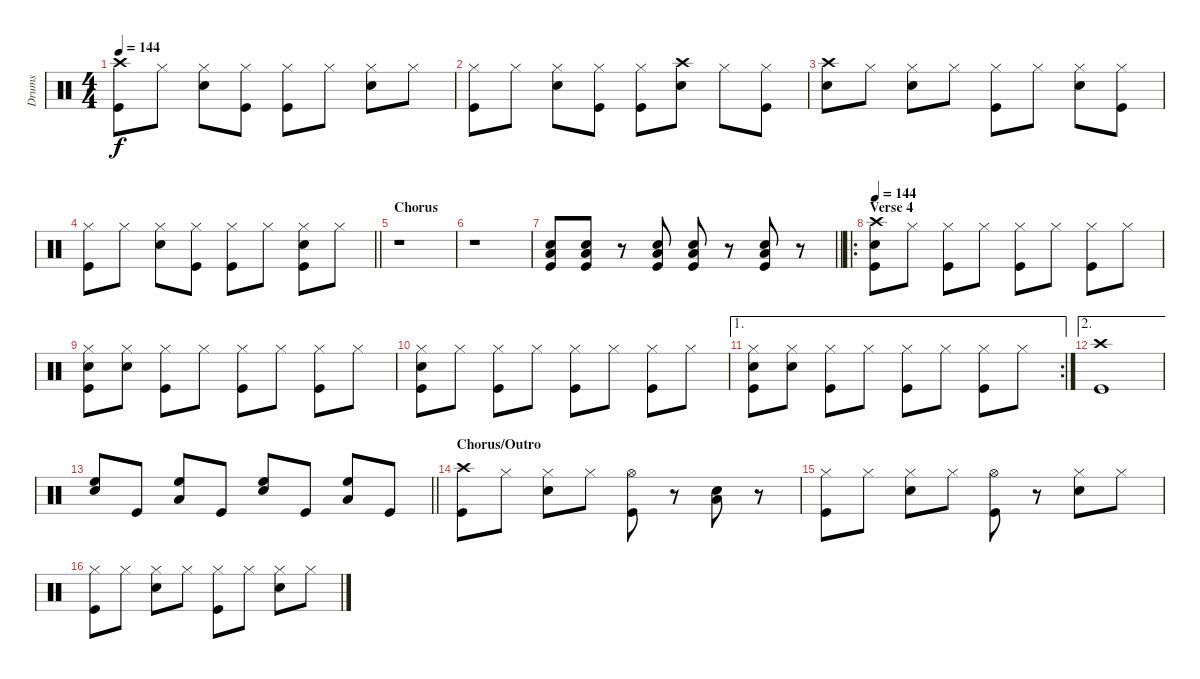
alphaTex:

\track ("Drums" "Drums") {instrument percussion}
\staff {score}
\articulation defaults
\ts (4 4)
\tempo 144
\clef neutral
\ks c
("Crash high (hit)" "Kick (hit)").8{dy f} "Hi-Hat (closed)".8 ("Hi-Hat (closed)" "Snare (hit) 2").8 ("Hi-Hat (closed)" "Kick (hit)").8 ("Hi-Hat (closed)" "Kick (hit)").8 "Hi-Hat (closed)".8 ("Hi-Hat (closed)" "Snare (hit) 2").8 "Hi-Hat (closed)".8 |
("Hi-Hat (closed)" "Kick (hit)").8 "Hi-Hat (closed)".8 ("Hi-Hat (closed)" "Snare (hit) 2").8 ("Hi-Hat (closed)" "Kick (hit)").8 ("Hi-Hat (closed)" "Kick (hit)").8 ("Crash high (hit)" "Snare (hit) 2").8 "Hi-Hat (closed)".8 ("Hi-Hat (closed)" "Kick (hit)").8 |
("Crash high (hit)" "Snare (hit) 2").8 "Hi-Hat (closed)".8 ("Hi-Hat (closed)" "Snare (hit) 2").8 "Hi-Hat (closed)".8 ("Hi-Hat (closed)" "Kick (hit)").8 "Hi-Hat (closed)".8 ("Hi-Hat (closed)" "Snare (hit) 2").8 ("Hi-Hat (closed)" "Kick (hit)").8 |
\barLineRight lightlight
("Hi-Hat (closed)" "Kick (hit)").8 "Hi-Hat (closed)".8 ("Hi-Hat (closed)" "Snare (hit) 2").8 ("Hi-Hat (closed)" "Kick (hit)").8 ("Hi-Hat (closed)" "Kick (hit)").8 "Hi-Hat (closed)".8 ("Hi-Hat (closed)" "Snare (hit) 2" "Kick (hit)").8 "Hi-Hat (closed)".8 |
\section ("" "Chorus")
r.1 |
r.1 |
\barLineRight lightlight
("Snare (hit) 2" "Low Floor Tom (hit)" "Kick (hit)").8 ("Snare (hit) 2" "Low Floor Tom (hit)" "Kick (hit)").8 r.8 ("Snare (hit) 2" "Low Floor Tom (hit)" "Kick (hit)").8 ("Snare (hit) 2" "Low Floor Tom (hit)" "Kick (hit)").8 r.8 ("Snare (hit) 2" "Low Floor Tom (hit)" "Kick (hit)").8 r.8 |
\ro
\section ("" "Verse 4")
\tempo 144
("Crash high (hit)" "Snare (hit) 2" "Kick (hit)").8 "Hi-Hat (closed)".8 ("Hi-Hat (closed)" "Kick (hit)").8 "Hi-Hat (closed)".8 ("Hi-Hat (closed)" "Kick (hit)").8 "Hi-Hat (closed)".8 ("Hi-Hat (closed)" "Kick (hit)").8 "Hi-Hat (closed)".8 |
("Hi-Hat (closed)" "Snare (hit) 2" "Kick (hit)").8 ("Hi-Hat (closed)" "Snare (hit) 2").8 ("Hi-Hat (closed)" "Kick (hit)").8 "Hi-Hat (closed)".8 ("Hi-Hat (closed)" "Kick (hit)").8 "Hi-Hat (closed)".8 ("Hi-Hat (closed)" "Kick (hit)").8 "Hi-Hat (closed)".8 |
("Hi-Hat (closed)" "Snare (hit) 2" "Kick (hit)").8 "Hi-Hat (closed)".8 ("Hi-Hat (closed)" "Kick (hit)").8 "Hi-Hat (closed)".8 ("Hi-Hat (closed)" "Kick (hit)").8 "Hi-Hat (closed)".8 ("Hi-Hat (closed)" "Kick (hit)").8 "Hi-Hat (closed)".8 |
\ae 1
\rc 2
("Hi-Hat (closed)" "Snare (hit) 2" "Kick (hit)").8 ("Hi-Hat (closed)" "Snare (hit) 2").8 ("Hi-Hat (closed)" "Kick (hit)").8 "Hi-Hat (closed)".8 ("Hi-Hat (closed)" "Kick (hit)").8 "Hi-Hat (closed)".8 ("Hi-Hat (closed)" "Kick (hit)").8 "Hi-Hat (closed)".8 |
\ae 2
("Crash high (hit)" "Kick (hit)").1 |
\barLineRight lightlight
("High Floor Tom (hit)" "Snare (hit) 2").8 "Kick (hit)".8 ("High Floor Tom (hit)" "Low Floor Tom (hit)").8 "Kick (hit)".8 ("High Floor Tom (hit)" "Snare (hit) 2").8 "Kick (hit)".8 ("High Floor Tom (hit)" "Low Floor Tom (hit)").8 "Kick (hit)".8 |
\section ("" "Chorus/Outro")
("Crash high (hit)" "Kick (hit)").8 "Hi-Hat (closed)".8 ("Hi-Hat (closed)" "Snare (hit) 2").8 "Hi-Hat (closed)".8 ("Hi-Hat (open)" "Kick (hit)").8 r.8 ("Snare (hit) 2" "Low Floor Tom (hit)").8 r.8 |
("Hi-Hat (closed)" "Kick (hit)").8 "Hi-Hat (closed)".8 ("Hi-Hat (closed)" "Snare (hit) 2").8 "Hi-Hat (closed)".8 ("Hi-Hat (open)" "Kick (hit)").8 r.8 ("Hi-Hat (closed)" "Snare (hit) 2").8 "Hi-Hat (closed)".8 |
("Hi-Hat (closed)" "Kick (hit)").8 "Hi-Hat (closed)".8 ("Hi-Hat (closed)" "Snare (hit) 2").8 "Hi-Hat (closed)".8 ("Hi-Hat (closed)" "Kick (hit)").8 "Hi-Hat (closed)".8 ("Hi-Hat (closed)" "Snare (hit) 2").8 "Hi-Hat (closed)".8
